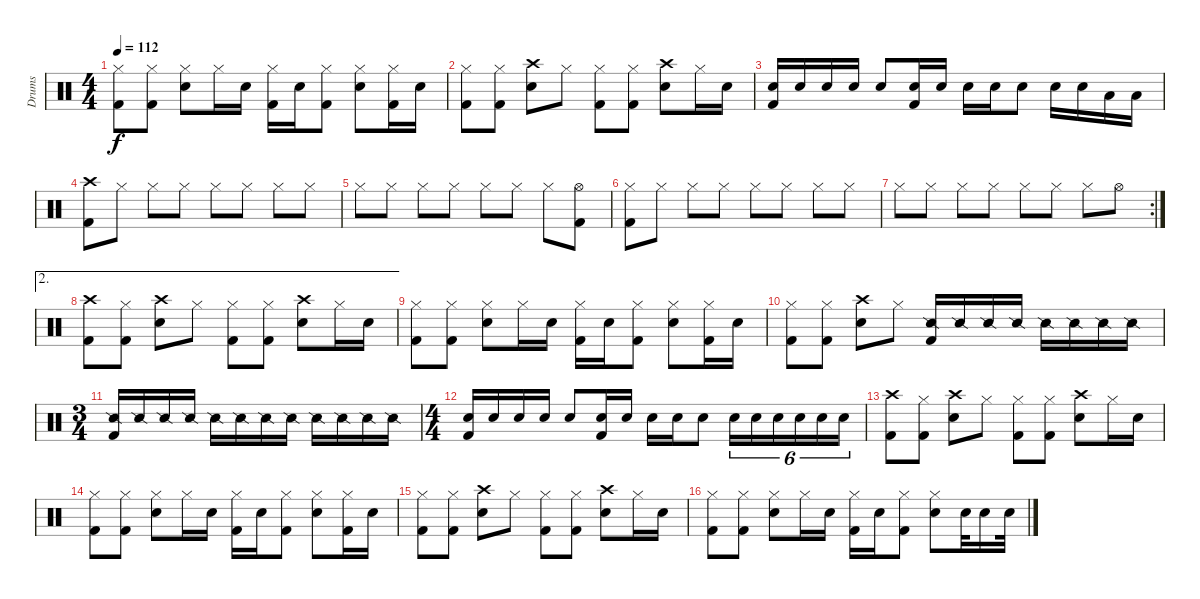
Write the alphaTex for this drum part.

\track ("Drums" "Drums") {instrument percussion}
\staff {score}
\articulation defaults
\ts (4 4)
\tempo 112
\clef neutral
\ks c
("Hi-Hat (closed)" "Kick (hit) 2").8{dy f} ("Hi-Hat (closed)" "Kick (hit) 2").8 ("Hi-Hat (closed)" "Snare (hit) 2").8 "Hi-Hat (closed)".16 "Snare (hit) 2".16 ("Hi-Hat (closed)" "Kick (hit) 2").16 "Snare (hit) 2".16 ("Hi-Hat (closed)" "Kick (hit) 2").8 ("Hi-Hat (closed)" "Snare (hit) 2").8 ("Hi-Hat (closed)" "Kick (hit) 2").16 "Snare (hit) 2".16 |
("Hi-Hat (closed)" "Kick (hit) 2").8 ("Hi-Hat (closed)" "Kick (hit) 2").8 ("Crash high (hit)" "Snare (hit) 2").8 "Hi-Hat (closed)".8 ("Hi-Hat (closed)" "Kick (hit) 2").8 ("Hi-Hat (closed)" "Kick (hit) 2").8 ("Crash high (hit)" "Snare (hit) 2").8 "Hi-Hat (closed)".16 "Snare (hit) 2".16 |
("Snare (hit) 2" "Kick (hit) 2").16 "Snare (hit) 2".16 "Snare (hit) 2".16 "Snare (hit) 2".16 "Snare (hit) 2".8 ("Snare (hit) 2" "Kick (hit) 2").16 "Snare (hit) 2".16 "Snare (hit) 2".16 "Snare (hit) 2".16 "Snare (hit) 2".8 "Snare (hit) 2".16 "Snare (hit) 2".16 "Low Tom (hit)".16 "Low Tom (hit)".16 |
("Crash high (hit)" "Kick (hit) 2").8 "Hi-Hat (closed)".8 "Hi-Hat (closed)".8 "Hi-Hat (closed)".8 "Hi-Hat (closed)".8 "Hi-Hat (closed)".8 "Hi-Hat (closed)".8 "Hi-Hat (closed)".8 |
"Hi-Hat (closed)".8 "Hi-Hat (closed)".8 "Hi-Hat (closed)".8 "Hi-Hat (closed)".8 "Hi-Hat (closed)".8 "Hi-Hat (closed)".8 "Hi-Hat (closed)".8 ("Hi-Hat (open)" "Kick (hit) 2").8 |
("Hi-Hat (closed)" "Kick (hit) 2").8 "Hi-Hat (closed)".8 "Hi-Hat (closed)".8 "Hi-Hat (closed)".8 "Hi-Hat (closed)".8 "Hi-Hat (closed)".8 "Hi-Hat (closed)".8 "Hi-Hat (closed)".8 |
\rc 2 "Hi-Hat (closed)".8 "Hi-Hat (closed)".8 "Hi-Hat (closed)".8 "Hi-Hat (closed)".8 "Hi-Hat (closed)".8 "Hi-Hat (closed)".8 "Hi-Hat (closed)".8 "Hi-Hat (open)".8
|
\ae 2
("Crash high (hit)" "Kick (hit) 2").8 ("Hi-Hat (closed)" "Kick (hit) 2").8 ("Crash high (hit)" "Snare (hit) 2").8 "Hi-Hat (closed)".8 ("Hi-Hat (closed)" "Kick (hit) 2").8 ("Hi-Hat (closed)" "Kick (hit) 2").8 ("Crash high (hit)" "Snare (hit) 2").8 "Hi-Hat (closed)".16 "Snare (hit) 2".16 |
("Hi-Hat (closed)" "Kick (hit) 2").8 ("Hi-Hat (closed)" "Kick (hit) 2").8 ("Hi-Hat (closed)" "Snare (hit) 2").8 "Hi-Hat (closed)".16 "Snare (hit) 2".16 ("Hi-Hat (closed)" "Kick (hit) 2").16 "Snare (hit) 2".16 ("Hi-Hat (closed)" "Kick (hit) 2").8 ("Hi-Hat (closed)" "Snare (hit) 2").8 ("Hi-Hat (closed)" "Kick (hit) 2").16 "Snare (hit) 2".16 |
("Hi-Hat (closed)" "Kick (hit) 2").8 ("Hi-Hat (closed)" "Kick (hit) 2").8 ("Crash high (hit)" "Snare (hit) 2").8 "Hi-Hat (closed)".8 ("Snare (side stick) 2" "Kick (hit) 2").16 "Snare (side stick) 2".16 "Snare (side stick) 2".16 "Snare (side stick) 2".16 "Snare (side stick) 2".16 "Snare (side stick) 2".16 "Snare (side stick) 2".16 "Snare (side stick) 2".16 |
\ts (3 4)
("Snare (side stick) 2" "Kick (hit) 2").16 "Snare (side stick) 2".16 "Snare (side stick) 2".16 "Snare (side stick) 2".16 "Snare (side stick) 2".16 "Snare (side stick) 2".16 "Snare (side stick) 2".16 "Snare (side stick) 2".16 "Snare (side stick) 2".16 "Snare (side stick) 2".16 "Snare (side stick) 2".16 "Snare (side stick) 2".16 |
\ts (4 4)
("Snare (hit) 2" "Kick (hit) 2").16 "Snare (hit) 2".16 "Snare (hit) 2".16 "Snare (hit) 2".16 "Snare (hit) 2".8 ("Snare (hit) 2" "Kick (hit) 2").16 "Snare (hit) 2".16 "Snare (hit) 2".16 "Snare (hit) 2".16 "Snare (hit) 2".8 "Snare (hit) 2".16{tu (6 4)} "Snare (hit) 2".16{tu (6 4)} "Snare (hit) 2".16{tu (6 4)} "Snare (hit) 2".16{tu (6 4)} "Snare (hit) 2".16{tu (6 4)} "Snare (hit) 2".16{tu (6 4)} |
("Crash high (hit)" "Kick (hit) 2").8 ("Hi-Hat (closed)" "Kick (hit) 2").8 ("Crash high (hit)" "Snare (hit) 2").8 "Hi-Hat (closed)".8 ("Hi-Hat (closed)" "Kick (hit) 2").8 ("Hi-Hat (closed)" "Kick (hit) 2").8 ("Crash high (hit)" "Snare (hit) 2").8 "Hi-Hat (closed)".16 "Snare (hit) 2".16 |
("Hi-Hat (closed)" "Kick (hit) 2").8 ("Hi-Hat (closed)" "Kick (hit) 2").8 ("Hi-Hat (closed)" "Snare (hit) 2").8 "Hi-Hat (closed)".16 "Snare (hit) 2".16 ("Hi-Hat (closed)" "Kick (hit) 2").16 "Snare (hit) 2".16 ("Hi-Hat (closed)" "Kick (hit) 2").8 ("Hi-Hat (closed)" "Snare (hit) 2").8 ("Hi-Hat (closed)" "Kick (hit) 2").16 "Snare (hit) 2".16 |
("Hi-Hat (closed)" "Kick (hit) 2").8 ("Hi-Hat (closed)" "Kick (hit) 2").8 ("Crash high (hit)" "Snare (hit) 2").8 "Hi-Hat (closed)".8 ("Hi-Hat (closed)" "Kick (hit) 2").8 ("Hi-Hat (closed)" "Kick (hit) 2").8 ("Crash high (hit)" "Snare (hit) 2").8 "Hi-Hat (closed)".16 "Snare (hit) 2".16 |
("Hi-Hat (closed)" "Kick (hit) 2").8 ("Hi-Hat (closed)" "Kick (hit) 2").8 ("Hi-Hat (closed)" "Snare (hit) 2").8 "Hi-Hat (closed)".16 "Snare (hit) 2".16 ("Hi-Hat (closed)" "Kick (hit) 2").16 "Snare (hit) 2".16 ("Hi-Hat (closed)" "Kick (hit) 2").8 ("Hi-Hat (closed)" "Snare (hit) 2").8 "Snare (hit) 2".32 "Snare (hit) 2".16 "Snare (hit) 2".32
